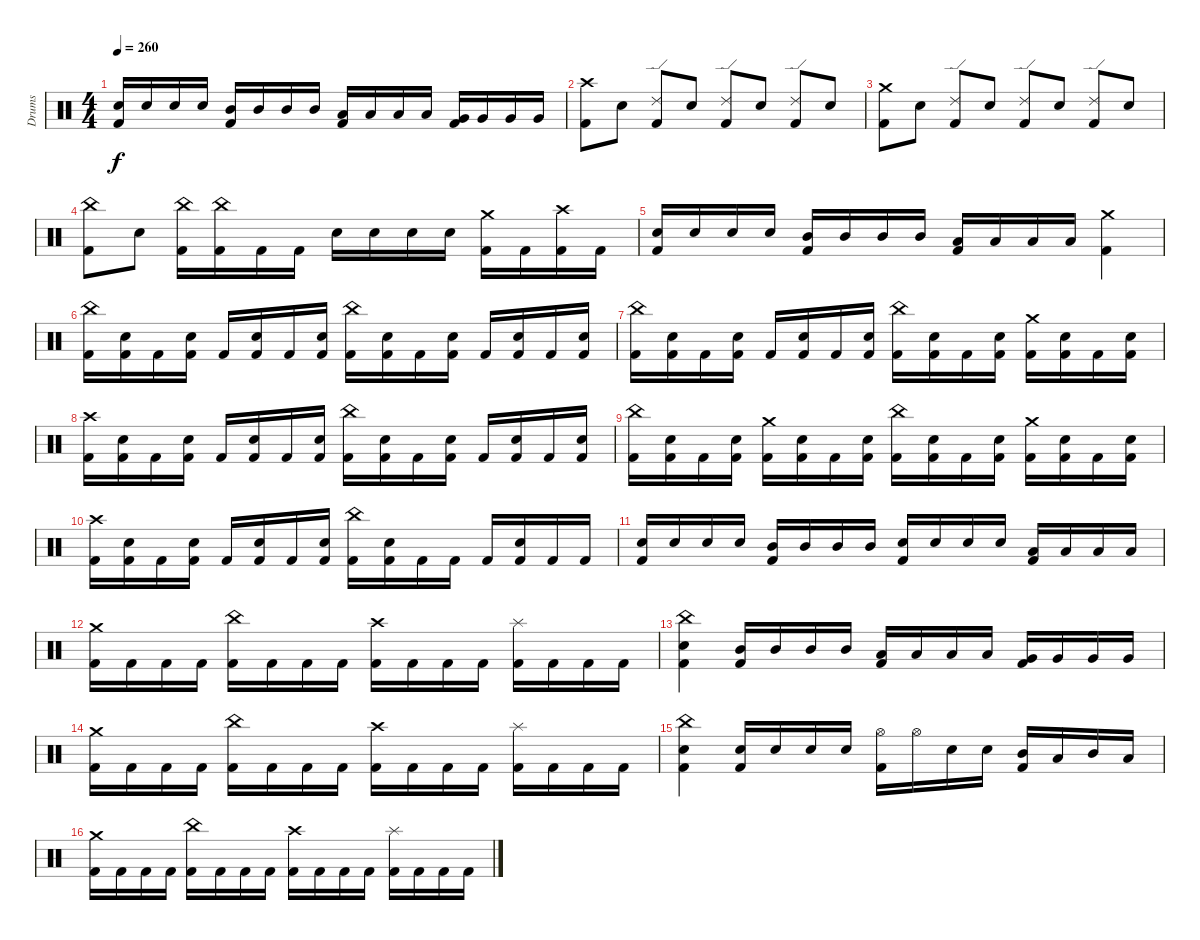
\track ("Drums" "Drums") {instrument percussion}
\staff {score}
\articulation defaults
\ts (4 4)
\tempo 260
\clef neutral
\ks c
("Snare (hit) 2" "Kick (hit) 2").16{dy f} "Snare (hit) 2".16 "Snare (hit) 2".16 "Snare (hit) 2".16 ("Mid Tom (hit)" "Kick (hit) 2").16 "Mid Tom (hit)".16 "Mid Tom (hit)".16 "Mid Tom (hit)".16 ("Low Tom (hit)" "Kick (hit) 2").16 "Low Tom (hit)".16 "Low Tom (hit)".16 "Low Tom (hit)".16 ("Very Low Tom (hit)" "Kick (hit) 2").16 "Very Low Tom (hit)".16 "Very Low Tom (hit)".16 "Very Low Tom (hit)".16 |
("Crash high (hit)" "Kick (hit) 2").8 "Snare (hit) 2".8 ("Ride (edge) 2" "Kick (hit) 2").8 "Snare (hit) 2".8 ("Ride (edge) 2" "Kick (hit) 2").8 "Snare (hit) 2".8 ("Ride (edge) 2" "Kick (hit) 2").8 "Snare (hit) 2".8 |
("Crash medium (hit)" "Kick (hit) 2").8 "Snare (hit) 2".8 ("Ride (edge) 2" "Kick (hit) 2").8 "Snare (hit) 2".8 ("Ride (edge) 2" "Kick (hit) 2").8 "Snare (hit) 2".8 ("Ride (edge) 2" "Kick (hit) 2").8 "Snare (hit) 2".8 |
("China (hit)" "Kick (hit) 2").8 "Snare (hit) 2".8 ("China (hit)" "Kick (hit) 2").16 ("China (hit)" "Kick (hit) 2").16 "Kick (hit) 2".16 "Kick (hit) 2".16 "Snare (hit) 2".16 "Snare (hit) 2".16 "Snare (hit) 2".16 "Snare (hit) 2".16 ("Crash medium (hit)" "Kick (hit) 2").16 "Kick (hit) 2".16 ("Crash high (hit)" "Kick (hit) 2").16 "Kick (hit) 2".16 |
("Snare (hit) 2" "Kick (hit) 2").16 "Snare (hit) 2".16 "Snare (hit) 2".16 "Snare (hit) 2".16 ("Mid Tom (hit)" "Kick (hit) 2").16 "Mid Tom (hit)".16 "Mid Tom (hit)".16 "Mid Tom (hit)".16 ("Low Tom (hit)" "Kick (hit) 2").16 "Low Tom (hit)".16 "Low Tom (hit)".16 "Low Tom (hit)".16 ("Crash medium (hit)" "Kick (hit) 2").4 |
("China (hit)" "Kick (hit) 2").16 ("Snare (hit) 2" "Kick (hit) 2").16 "Kick (hit) 2".16 ("Snare (hit) 2" "Kick (hit) 2").16 "Kick (hit) 2".16 ("Snare (hit) 2" "Kick (hit) 2").16 "Kick (hit) 2".16 ("Snare (hit) 2" "Kick (hit) 2").16 ("China (hit)" "Kick (hit) 2").16 ("Snare (hit) 2" "Kick (hit) 2").16 "Kick (hit) 2".16 ("Snare (hit) 2" "Kick (hit) 2").16 "Kick (hit) 2".16 ("Snare (hit) 2" "Kick (hit) 2").16 "Kick (hit) 2".16 ("Snare (hit) 2" "Kick (hit) 2").16 |
("China (hit)" "Kick (hit) 2").16 ("Snare (hit) 2" "Kick (hit) 2").16 "Kick (hit) 2".16 ("Snare (hit) 2" "Kick (hit) 2").16 "Kick (hit) 2".16 ("Snare (hit) 2" "Kick (hit) 2").16 "Kick (hit) 2".16 ("Snare (hit) 2" "Kick (hit) 2").16 ("China (hit)" "Kick (hit) 2").16 ("Snare (hit) 2" "Kick (hit) 2").16 "Kick (hit) 2".16 ("Snare (hit) 2" "Kick (hit) 2").16 ("Crash medium (hit)" "Kick (hit) 2").16 ("Snare (hit) 2" "Kick (hit) 2").16 "Kick (hit) 2".16 ("Snare (hit) 2" "Kick (hit) 2").16 |
("Crash high (hit)" "Kick (hit) 2").16 ("Snare (hit) 2" "Kick (hit) 2").16 "Kick (hit) 2".16 ("Snare (hit) 2" "Kick (hit) 2").16 "Kick (hit) 2".16 ("Snare (hit) 2" "Kick (hit) 2").16 "Kick (hit) 2".16 ("Snare (hit) 2" "Kick (hit) 2").16 ("China (hit)" "Kick (hit) 2").16 ("Snare (hit) 2" "Kick (hit) 2").16 "Kick (hit) 2".16 ("Snare (hit) 2" "Kick (hit) 2").16 "Kick (hit) 2".16 ("Snare (hit) 2" "Kick (hit) 2").16 "Kick (hit) 2".16 ("Snare (hit) 2" "Kick (hit) 2").16 |
("China (hit)" "Kick (hit) 2").16 ("Snare (hit) 2" "Kick (hit) 2").16 "Kick (hit) 2".16 ("Snare (hit) 2" "Kick (hit) 2").16 ("Crash medium (hit)" "Kick (hit) 2").16 ("Snare (hit) 2" "Kick (hit) 2").16 "Kick (hit) 2".16 ("Snare (hit) 2" "Kick (hit) 2").16 ("China (hit)" "Kick (hit) 2").16 ("Snare (hit) 2" "Kick (hit) 2").16 "Kick (hit) 2".16 ("Snare (hit) 2" "Kick (hit) 2").16 ("Crash medium (hit)" "Kick (hit) 2").16 ("Snare (hit) 2" "Kick (hit) 2").16 "Kick (hit) 2".16 ("Snare (hit) 2" "Kick (hit) 2").16 |
("Crash high (hit)" "Kick (hit) 2").16 ("Snare (hit) 2" "Kick (hit) 2").16 "Kick (hit) 2".16 ("Snare (hit) 2" "Kick (hit) 2").16 "Kick (hit) 2".16 ("Snare (hit) 2" "Kick (hit) 2").16 "Kick (hit) 2".16 ("Snare (hit) 2" "Kick (hit) 2").16 ("China (hit)" "Kick (hit) 2").16 ("Snare (hit) 2" "Kick (hit) 2").16 "Kick (hit) 2".16 "Kick (hit) 2".16 "Kick (hit) 2".16 ("Snare (hit) 2" "Kick (hit) 2").16 "Kick (hit) 2".16 "Kick (hit) 2".16 |
("Snare (hit) 2" "Kick (hit) 2").16 "Snare (hit) 2".16 "Snare (hit) 2".16 "Snare (hit) 2".16 ("Mid Tom (hit)" "Kick (hit) 2").16 "Mid Tom (hit)".16 "Mid Tom (hit)".16 "Mid Tom (hit)".16 ("Snare (hit) 2" "Kick (hit) 2").16 "Snare (hit) 2".16 "Snare (hit) 2".16 "Snare (hit) 2".16 ("Low Tom (hit)" "Kick (hit) 2").16 "Low Tom (hit)".16 "Low Tom (hit)".16 "Low Tom (hit)".16 |
("Crash medium (hit)" "Kick (hit) 2").16 "Kick (hit) 2".16 "Kick (hit) 2".16 "Kick (hit) 2".16 ("China (hit)" "Kick (hit) 2").16 "Kick (hit) 2".16 "Kick (hit) 2".16 "Kick (hit) 2".16 ("Crash high (hit)" "Kick (hit) 2").16 "Kick (hit) 2".16 "Kick (hit) 2".16 "Kick (hit) 2".16 ("Splash (hit)" "Kick (hit) 2").16 "Kick (hit) 2".16 "Kick (hit) 2".16 "Kick (hit) 2".16 |
("China (hit)" "Snare (hit) 2" "Kick (hit) 2").4 ("Mid Tom (hit)" "Kick (hit) 2").16 "Mid Tom (hit)".16 "Mid Tom (hit)".16 "Mid Tom (hit)".16 ("Low Tom (hit)" "Kick (hit) 2").16 "Low Tom (hit)".16 "Low Tom (hit)".16 "Low Tom (hit)".16 ("Very Low Tom (hit)" "Kick (hit) 2").16 "Very Low Tom (hit)".16 "Very Low Tom (hit)".16 "Very Low Tom (hit)".16 |
("Crash medium (hit)" "Kick (hit) 2").16 "Kick (hit) 2".16 "Kick (hit) 2".16 "Kick (hit) 2".16 ("China (hit)" "Kick (hit) 2").16 "Kick (hit) 2".16 "Kick (hit) 2".16 "Kick (hit) 2".16 ("Crash high (hit)" "Kick (hit) 2").16 "Kick (hit) 2".16 "Kick (hit) 2".16 "Kick (hit) 2".16 ("Splash (hit)" "Kick (hit) 2").16 "Kick (hit) 2".16 "Kick (hit) 2".16 "Kick (hit) 2".16 |
("China (hit)" "Snare (hit) 2" "Kick (hit) 2").4 ("Snare (hit) 2" "Kick (hit) 2").16 "Snare (hit) 2".16 "Snare (hit) 2".16 "Snare (hit) 2".16 ("Hi-Hat (open)" "Kick (hit) 2").16 "Hi-Hat (open)".16 "Snare (hit) 2".16 "Snare (hit) 2".16 ("Mid Tom (hit)" "Kick (hit) 2").16 "Low Tom (hit)".16 "Mid Tom (hit)".16 "Low Tom (hit)".16 |
("Crash medium (hit)" "Kick (hit) 2").16 "Kick (hit) 2".16 "Kick (hit) 2".16 "Kick (hit) 2".16 ("China (hit)" "Kick (hit) 2").16 "Kick (hit) 2".16 "Kick (hit) 2".16 "Kick (hit) 2".16 ("Crash high (hit)" "Kick (hit) 2").16 "Kick (hit) 2".16 "Kick (hit) 2".16 "Kick (hit) 2".16 ("Splash (hit)" "Kick (hit) 2").16 "Kick (hit) 2".16 "Kick (hit) 2".16 "Kick (hit) 2".16
